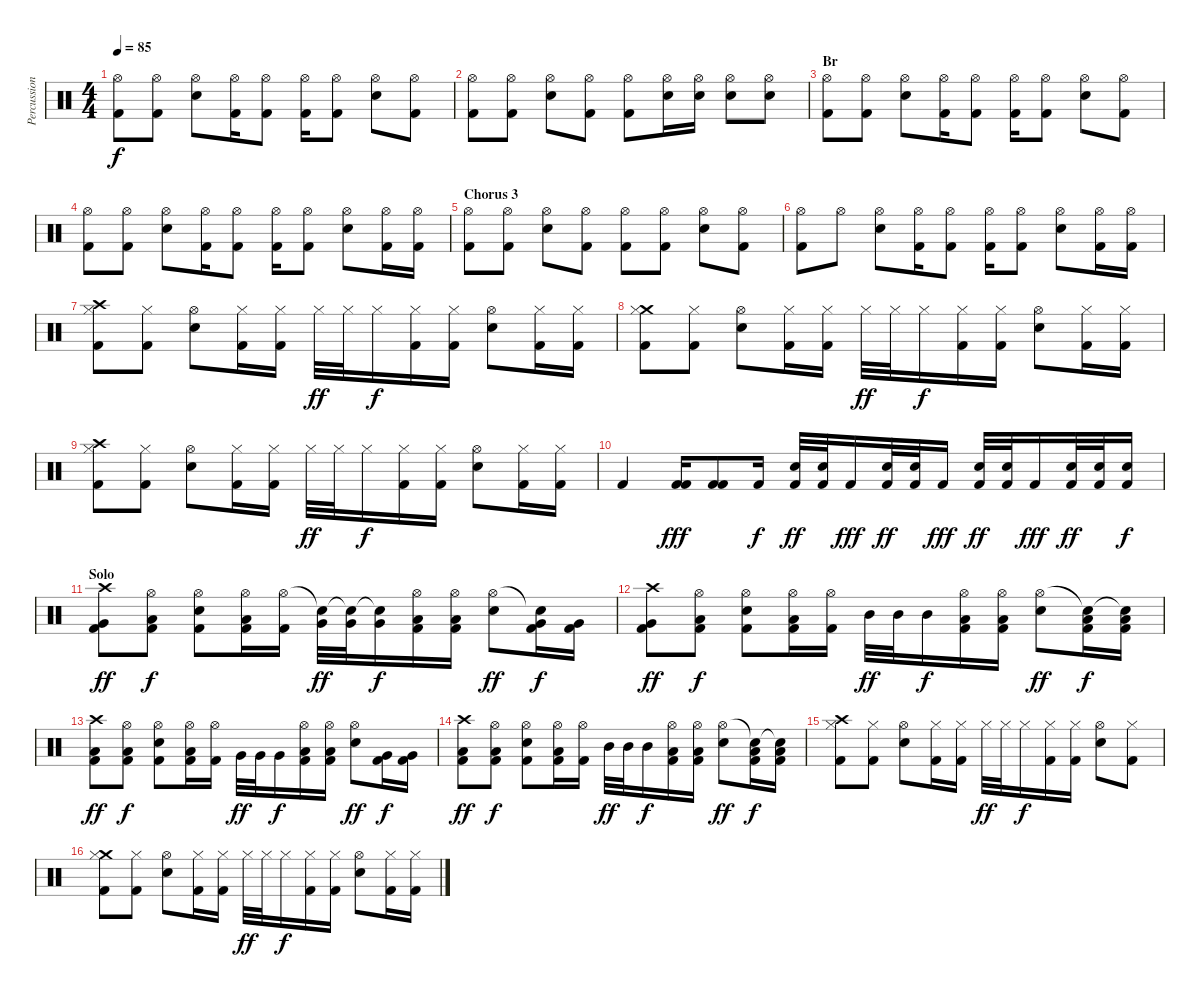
\track ("Percussion" "Percussion") {instrument percussion}
\staff {score}
\articulation defaults
\ts (4 4)
\tempo 85
\clef neutral
\ks c
("Hi-Hat (open)" "Kick (hit) 2").8{dy f} ("Hi-Hat (open)" "Kick (hit) 2").8 ("Hi-Hat (open)" "Electric Snare (hit)").8 ("Hi-Hat (open)" "Kick (hit) 2").16 ("Hi-Hat (open)" "Kick (hit) 2").8 ("Hi-Hat (open)" "Kick (hit) 2").16 ("Hi-Hat (open)" "Kick (hit) 2").8 ("Hi-Hat (open)" "Electric Snare (hit)").8 ("Hi-Hat (open)" "Kick (hit) 2").8 |
("Hi-Hat (open)" "Kick (hit) 2").8 ("Hi-Hat (open)" "Kick (hit) 2").8 ("Hi-Hat (open)" "Electric Snare (hit)").8 ("Hi-Hat (open)" "Kick (hit) 2").8 ("Hi-Hat (open)" "Kick (hit) 2").8 ("Hi-Hat (open)" "Electric Snare (hit)").16 ("Hi-Hat (open)" "Electric Snare (hit)").16 ("Hi-Hat (open)" "Electric Snare (hit)").8 ("Hi-Hat (open)" "Electric Snare (hit)").8 |
\section ("" "Br")
("Hi-Hat (open)" "Kick (hit) 2").8 ("Hi-Hat (open)" "Kick (hit) 2").8 ("Hi-Hat (open)" "Electric Snare (hit)").8 ("Hi-Hat (open)" "Kick (hit) 2").16 ("Hi-Hat (open)" "Kick (hit) 2").8 ("Hi-Hat (open)" "Kick (hit) 2").16 ("Hi-Hat (open)" "Kick (hit) 2").8 ("Hi-Hat (open)" "Electric Snare (hit)").8 ("Hi-Hat (open)" "Kick (hit) 2").8 |
("Hi-Hat (open)" "Kick (hit) 2").8 ("Hi-Hat (open)" "Kick (hit) 2").8 ("Hi-Hat (open)" "Electric Snare (hit)").8 ("Hi-Hat (open)" "Kick (hit) 2").16 ("Hi-Hat (open)" "Kick (hit) 2").8 ("Hi-Hat (open)" "Kick (hit) 2").16 ("Hi-Hat (open)" "Kick (hit) 2").8 ("Hi-Hat (open)" "Electric Snare (hit)").8 ("Hi-Hat (open)" "Kick (hit) 2").16 ("Hi-Hat (open)" "Kick (hit) 2").16 |
\section ("" "Chorus 3")
("Hi-Hat (open)" "Kick (hit) 2").8 ("Hi-Hat (open)" "Kick (hit) 2").8 ("Hi-Hat (open)" "Electric Snare (hit)").8 ("Hi-Hat (open)" "Kick (hit) 2").8 ("Hi-Hat (open)" "Kick (hit) 2").8 ("Hi-Hat (open)" "Kick (hit) 2").8 ("Hi-Hat (open)" "Electric Snare (hit)").8 ("Hi-Hat (open)" "Kick (hit) 2").8 |
("Hi-Hat (open)" "Kick (hit) 2").8 "Hi-Hat (open)".8 ("Hi-Hat (open)" "Electric Snare (hit)").8 ("Hi-Hat (open)" "Kick (hit) 2").16 ("Hi-Hat (open)" "Kick (hit) 2").8 ("Hi-Hat (open)" "Kick (hit) 2").16 ("Hi-Hat (open)" "Kick (hit) 2").8 ("Hi-Hat (open)" "Electric Snare (hit)").8 ("Hi-Hat (open)" "Kick (hit) 2").16 ("Hi-Hat (open)" "Kick (hit) 2").16 |
("Crash high (hit)" "Hi-Hat (closed)" "Kick (hit) 2").8 ("Hi-Hat (closed)" "Kick (hit) 2").8 ("Hi-Hat (open)" "Electric Snare (hit)").8 ("Hi-Hat (closed)" "Kick (hit) 2").16 ("Hi-Hat (closed)" "Kick (hit) 2").16 "Hi-Hat (closed)".32{dy ff} "Hi-Hat (closed)".32 "Hi-Hat (closed)".16{dy f} ("Hi-Hat (closed)" "Kick (hit) 2").16 ("Hi-Hat (closed)" "Kick (hit) 2").16 ("Hi-Hat (open)" "Electric Snare (hit)").8 ("Hi-Hat (closed)" "Kick (hit) 2").16 ("Hi-Hat (closed)" "Kick (hit) 2").16 |
("Crash medium (hit)" "Hi-Hat (closed)" "Kick (hit) 2").8 ("Hi-Hat (closed)" "Kick (hit) 2").8 ("Hi-Hat (open)" "Electric Snare (hit)").8 ("Hi-Hat (closed)" "Kick (hit) 2").16 ("Hi-Hat (closed)" "Kick (hit) 2").16 "Hi-Hat (closed)".32{dy ff} "Hi-Hat (closed)".32 "Hi-Hat (closed)".16{dy f} ("Hi-Hat (closed)" "Kick (hit) 2").16 ("Hi-Hat (closed)" "Kick (hit) 2").16 ("Hi-Hat (open)" "Electric Snare (hit)").8 ("Hi-Hat (closed)" "Kick (hit) 2").16 ("Hi-Hat (closed)" "Kick (hit) 2").16 |
("Crash high (hit)" "Hi-Hat (closed)" "Kick (hit) 2").8 ("Hi-Hat (closed)" "Kick (hit) 2").8 ("Hi-Hat (open)" "Electric Snare (hit)").8 ("Hi-Hat (closed)" "Kick (hit) 2").16 ("Hi-Hat (closed)" "Kick (hit) 2").16 "Hi-Hat (closed)".32{dy ff} "Hi-Hat (closed)".32 "Hi-Hat (closed)".16{dy f} ("Hi-Hat (closed)" "Kick (hit) 2").16 ("Hi-Hat (closed)" "Kick (hit) 2").16 ("Hi-Hat (open)" "Electric Snare (hit)").8 ("Hi-Hat (closed)" "Kick (hit) 2").16 ("Hi-Hat (closed)" "Kick (hit) 2").16 |
"Kick (hit) 2".4{volume 15} ("Kick (hit) 2" "Kick (hit) 2").16{dy fff} ("Kick (hit) 2" "Kick (hit) 2").8 "Kick (hit) 2".16{dy f} ("Electric Snare (hit)" "Kick (hit) 2").32{dy ff} ("Electric Snare (hit)" "Kick (hit) 2").32 "Kick (hit) 2".16{dy fff} ("Electric Snare (hit)" "Kick (hit) 2").32{dy ff} ("Electric Snare (hit)" "Kick (hit) 2").32 "Kick (hit) 2".16{dy fff} ("Electric Snare (hit)" "Kick (hit) 2").32{dy ff} ("Electric Snare (hit)" "Kick (hit) 2").32 "Kick (hit) 2".16{dy fff} ("Electric Snare (hit)" "Kick (hit) 2").32{dy ff} ("Electric Snare (hit)" "Kick (hit) 2").32 ("Electric Snare (hit)" "Kick (hit) 2").16{dy f} |
\section ("" "Solo")
("Crash high (hit)" "Very Low Tom (hit)" "Kick (hit) 2").8{dy ff} ("Hi-Hat (open)" "Low Floor Tom (hit)" "Kick (hit) 2").8{dy f} ("Hi-Hat (open)" "Electric Snare (hit)" "Kick (hit) 2").8 ("Hi-Hat (open)" "Low Floor Tom (hit)" "Kick (hit) 2").16 ("Hi-Hat (open)" "Kick (hit) 2").16 ("Snare (hit)"{t} "Very Low Tom (hit)").32{dy ff} ("Snare (hit)"{t} "Very Low Tom (hit)").32 ("Snare (hit)"{t} "Very Low Tom (hit)").16{dy f} ("Hi-Hat (open)" "Low Floor Tom (hit)" "Kick (hit) 2").16 ("Hi-Hat (open)" "Low Floor Tom (hit)" "Kick (hit) 2").16 ("Hi-Hat (open)" "Electric Snare (hit)").8{dy ff} ("Snare (hit)"{t} "Very Low Tom (hit)" "Kick (hit) 2").16{dy f} ("Very Low Tom (hit)" "Kick (hit) 2").16 |
("Crash high (hit)" "Very Low Tom (hit)" "Kick (hit) 2").8{dy ff} ("Hi-Hat (open)" "Low Floor Tom (hit)" "Kick (hit) 2").8{dy f} ("Hi-Hat (open)" "Electric Snare (hit)" "Kick (hit) 2").8 ("Hi-Hat (open)" "Low Floor Tom (hit)" "Kick (hit) 2").16 ("Hi-Hat (open)" "Kick (hit) 2").16 "Mid Tom (hit)".32{dy ff} "Mid Tom (hit)".32 "Mid Tom (hit)".16{dy f} ("Hi-Hat (open)" "Low Floor Tom (hit)" "Kick (hit) 2").16 ("Hi-Hat (open)" "Low Floor Tom (hit)" "Kick (hit) 2").16 ("Hi-Hat (open)" "Electric Snare (hit)").8{dy ff} ("Snare (hit)"{t} "Low Floor Tom (hit)" "Kick (hit) 2").16{dy f} ("Snare (hit)"{t} "Low Floor Tom (hit)" "Kick (hit) 2").16 |
("Crash high (hit)" "Low Floor Tom (hit)" "Kick (hit) 2").8{dy ff} ("Hi-Hat (open)" "Low Floor Tom (hit)" "Kick (hit) 2").8{dy f} ("Hi-Hat (open)" "Electric Snare (hit)" "Kick (hit) 2").8 ("Hi-Hat (open)" "Low Floor Tom (hit)" "Kick (hit) 2").16 ("Hi-Hat (open)" "Kick (hit) 2").16 "Very Low Tom (hit)".32{dy ff} "Very Low Tom (hit)".32 "Very Low Tom (hit)".16{dy f} ("Hi-Hat (open)" "Low Floor Tom (hit)" "Kick (hit) 2").16 ("Hi-Hat (open)" "Low Floor Tom (hit)" "Kick (hit) 2").16 ("Hi-Hat (open)" "Electric Snare (hit)").8{dy ff} ("Very Low Tom (hit)" "Kick (hit) 2").16{dy f} ("Very Low Tom (hit)" "Kick (hit) 2").16 |
("Crash high (hit)" "Low Floor Tom (hit)" "Kick (hit) 2").8{dy ff} ("Hi-Hat (open)" "Low Floor Tom (hit)" "Kick (hit) 2").8{dy f} ("Hi-Hat (open)" "Electric Snare (hit)" "Kick (hit) 2").8 ("Hi-Hat (open)" "Low Floor Tom (hit)" "Kick (hit) 2").16 ("Hi-Hat (open)" "Kick (hit) 2").16 "Mid Tom (hit)".32{dy ff} "Mid Tom (hit)".32 "Mid Tom (hit)".16{dy f} ("Hi-Hat (open)" "Low Floor Tom (hit)" "Kick (hit) 2").16 ("Hi-Hat (open)" "Low Floor Tom (hit)" "Kick (hit) 2").16 ("Hi-Hat (open)" "Electric Snare (hit)").8{dy ff} ("Snare (hit)"{t} "Low Floor Tom (hit)" "Kick (hit) 2").16{dy f} ("Snare (hit)"{t} "Low Floor Tom (hit)" "Kick (hit) 2").16 |
("Crash high (hit)" "Hi-Hat (closed)" "Kick (hit) 2").8 ("Hi-Hat (closed)" "Kick (hit) 2").8 ("Hi-Hat (open)" "Electric Snare (hit)").8 ("Hi-Hat (closed)" "Kick (hit) 2").16 ("Hi-Hat (closed)" "Kick (hit) 2").16 "Hi-Hat (closed)".32{dy ff} "Hi-Hat (closed)".32 "Hi-Hat (closed)".16{dy f} ("Hi-Hat (closed)" "Kick (hit) 2").16 ("Hi-Hat (closed)" "Kick (hit) 2").16 ("Hi-Hat (open)" "Electric Snare (hit)").8 ("Hi-Hat (closed)" "Kick (hit) 2").8 |
("Crash medium (hit)" "Hi-Hat (closed)" "Kick (hit) 2").8 ("Hi-Hat (closed)" "Kick (hit) 2").8 ("Hi-Hat (open)" "Electric Snare (hit)").8 ("Hi-Hat (closed)" "Kick (hit) 2").16 ("Hi-Hat (closed)" "Kick (hit) 2").16 "Hi-Hat (closed)".32{dy ff} "Hi-Hat (closed)".32 "Hi-Hat (closed)".16{dy f} ("Hi-Hat (closed)" "Kick (hit) 2").16 ("Hi-Hat (closed)" "Kick (hit) 2").16 ("Hi-Hat (open)" "Electric Snare (hit)").8 ("Hi-Hat (closed)" "Kick (hit) 2").16 ("Hi-Hat (closed)" "Kick (hit) 2").16
